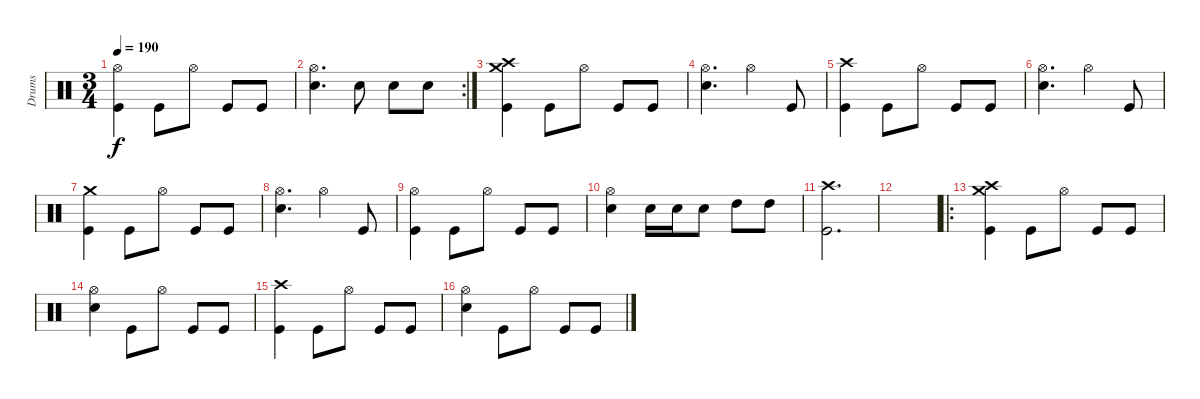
\track ("Drums" "Drums") {instrument percussion}
\staff {score}
\articulation defaults
\ts (3 4)
\tempo 190
\clef neutral
\ks c
("Hi-Hat (open)" "Kick (hit)").4{dy f} "Kick (hit)".8 "Hi-Hat (open)".8 "Kick (hit)".8 "Kick (hit)".8 |
\rc 2
("Hi-Hat (open)" "Snare (hit) 2").4{d} "Snare (hit) 2".8 "Snare (hit) 2".8 "Snare (hit) 2".8 |
("Crash high (hit)" "Crash medium (hit)" "Kick (hit)").4 "Kick (hit)".8 "Hi-Hat (open)".8 "Kick (hit)".8 "Kick (hit)".8 |
("Hi-Hat (open)" "Snare (hit) 2").4{d} "Hi-Hat (open)".4 "Kick (hit)".8 |
("Crash high (hit)" "Kick (hit)").4 "Kick (hit)".8 "Hi-Hat (open)".8 "Kick (hit)".8 "Kick (hit)".8 |
("Hi-Hat (open)" "Snare (hit) 2").4{d} "Hi-Hat (open)".4 "Kick (hit)".8 |
("Crash medium (hit)" "Kick (hit)").4 "Kick (hit)".8 "Hi-Hat (open)".8 "Kick (hit)".8 "Kick (hit)".8 |
("Hi-Hat (open)" "Snare (hit) 2").4{d} "Hi-Hat (open)".4 "Kick (hit)".8 |
("Hi-Hat (open)" "Kick (hit)").4 "Kick (hit)".8 "Hi-Hat (open)".8 "Kick (hit)".8 "Kick (hit)".8 |
("Hi-Hat (open)" "Snare (hit) 2").4 "Snare (hit) 2".16 "Snare (hit) 2".16 "Snare (hit) 2".8 "High Tom (hit)".8 "High Tom (hit)".8 |
("Crash high (hit)" "Kick (hit)").2{d} |
|
\ro
("Crash high (hit)" "Crash medium (hit)" "Kick (hit)").4 "Kick (hit)".8 "Hi-Hat (open)".8 "Kick (hit)".8 "Kick (hit)".8 |
("Hi-Hat (open)" "Snare (hit) 2").4 "Kick (hit)".8 "Hi-Hat (open)".8 "Kick (hit)".8 "Kick (hit)".8 |
("Crash high (hit)" "Kick (hit)").4 "Kick (hit)".8 "Hi-Hat (open)".8 "Kick (hit)".8 "Kick (hit)".8 |
("Hi-Hat (open)" "Snare (hit) 2").4 "Kick (hit)".8 "Hi-Hat (open)".8 "Kick (hit)".8 "Kick (hit)".8
